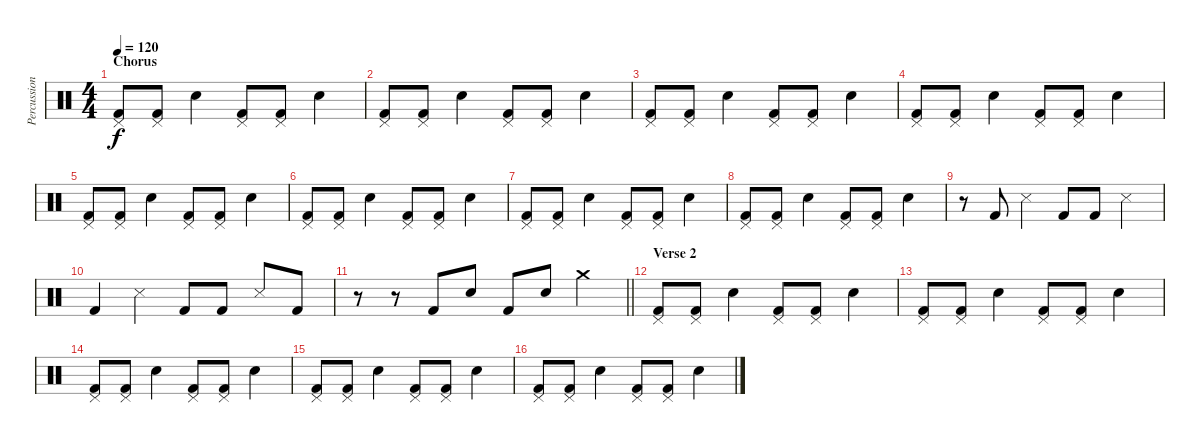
\track ("Percussion" "Percussion") {instrument percussion}
\staff {score}
\articulation defaults
\ts (4 4)
\section ("" "Chorus")
\tempo 120
\clef neutral
\ks c
("Kick (hit) 2" "Pedal Hi-Hat (hit)").8{dy f} ("Kick (hit) 2" "Pedal Hi-Hat (hit)").8 "Electric Snare (hit)".4 ("Kick (hit) 2" "Pedal Hi-Hat (hit)").8 ("Kick (hit) 2" "Pedal Hi-Hat (hit)").8 "Electric Snare (hit)".4 |
("Kick (hit) 2" "Pedal Hi-Hat (hit)").8 ("Kick (hit) 2" "Pedal Hi-Hat (hit)").8 "Electric Snare (hit)".4 ("Kick (hit) 2" "Pedal Hi-Hat (hit)").8 ("Kick (hit) 2" "Pedal Hi-Hat (hit)").8 "Electric Snare (hit)".4 |
("Kick (hit) 2" "Pedal Hi-Hat (hit)").8 ("Kick (hit) 2" "Pedal Hi-Hat (hit)").8 "Electric Snare (hit)".4 ("Kick (hit) 2" "Pedal Hi-Hat (hit)").8 ("Kick (hit) 2" "Pedal Hi-Hat (hit)").8 "Electric Snare (hit)".4 |
("Kick (hit) 2" "Pedal Hi-Hat (hit)").8 ("Kick (hit) 2" "Pedal Hi-Hat (hit)").8 "Electric Snare (hit)".4 ("Kick (hit) 2" "Pedal Hi-Hat (hit)").8 ("Kick (hit) 2" "Pedal Hi-Hat (hit)").8 "Electric Snare (hit)".4 |
("Kick (hit) 2" "Pedal Hi-Hat (hit)").8 ("Kick (hit) 2" "Pedal Hi-Hat (hit)").8 "Electric Snare (hit)".4 ("Kick (hit) 2" "Pedal Hi-Hat (hit)").8 ("Kick (hit) 2" "Pedal Hi-Hat (hit)").8 "Electric Snare (hit)".4 |
("Kick (hit) 2" "Pedal Hi-Hat (hit)").8 ("Kick (hit) 2" "Pedal Hi-Hat (hit)").8 "Electric Snare (hit)".4 ("Kick (hit) 2" "Pedal Hi-Hat (hit)").8 ("Kick (hit) 2" "Pedal Hi-Hat (hit)").8 "Electric Snare (hit)".4 |
("Kick (hit) 2" "Pedal Hi-Hat (hit)").8 ("Kick (hit) 2" "Pedal Hi-Hat (hit)").8 "Electric Snare (hit)".4 ("Kick (hit) 2" "Pedal Hi-Hat (hit)").8 ("Kick (hit) 2" "Pedal Hi-Hat (hit)").8 "Electric Snare (hit)".4 |
("Kick (hit) 2" "Pedal Hi-Hat (hit)").8 ("Kick (hit) 2" "Pedal Hi-Hat (hit)").8 "Electric Snare (hit)".4 ("Kick (hit) 2" "Pedal Hi-Hat (hit)").8 ("Kick (hit) 2" "Pedal Hi-Hat (hit)").8 "Electric Snare (hit)".4 |
r.8 "Kick (hit) 2".8 "Snare (side stick) 3".4 "Kick (hit) 2".8 "Kick (hit) 2".8 "Snare (side stick) 3".4 |
"Kick (hit) 2".4 "Snare (side stick) 3".4 "Kick (hit) 2".8 "Kick (hit) 2".8 "Snare (side stick) 3".8 "Kick (hit) 2".8 |
\barLineRight lightlight
r.8 r.8 "Kick (hit) 2".8 "Snare (hit) 2".8 "Kick (hit) 2".8 "Snare (hit) 2".8 "Crash medium (hit)".4 |
\section ("" "Verse 2")
("Kick (hit) 2" "Pedal Hi-Hat (hit)").8 ("Kick (hit) 2" "Pedal Hi-Hat (hit)").8 "Electric Snare (hit)".4 ("Kick (hit) 2" "Pedal Hi-Hat (hit)").8 ("Kick (hit) 2" "Pedal Hi-Hat (hit)").8 "Electric Snare (hit)".4 |
("Kick (hit) 2" "Pedal Hi-Hat (hit)").8 ("Kick (hit) 2" "Pedal Hi-Hat (hit)").8 "Electric Snare (hit)".4 ("Kick (hit) 2" "Pedal Hi-Hat (hit)").8 ("Kick (hit) 2" "Pedal Hi-Hat (hit)").8 "Electric Snare (hit)".4 |
("Kick (hit) 2" "Pedal Hi-Hat (hit)").8 ("Kick (hit) 2" "Pedal Hi-Hat (hit)").8 "Electric Snare (hit)".4 ("Kick (hit) 2" "Pedal Hi-Hat (hit)").8 ("Kick (hit) 2" "Pedal Hi-Hat (hit)").8 "Electric Snare (hit)".4 |
("Kick (hit) 2" "Pedal Hi-Hat (hit)").8 ("Kick (hit) 2" "Pedal Hi-Hat (hit)").8 "Electric Snare (hit)".4 ("Kick (hit) 2" "Pedal Hi-Hat (hit)").8 ("Kick (hit) 2" "Pedal Hi-Hat (hit)").8 "Electric Snare (hit)".4 |
("Kick (hit) 2" "Pedal Hi-Hat (hit)").8 ("Kick (hit) 2" "Pedal Hi-Hat (hit)").8 "Electric Snare (hit)".4 ("Kick (hit) 2" "Pedal Hi-Hat (hit)").8 ("Kick (hit) 2" "Pedal Hi-Hat (hit)").8 "Electric Snare (hit)".4
